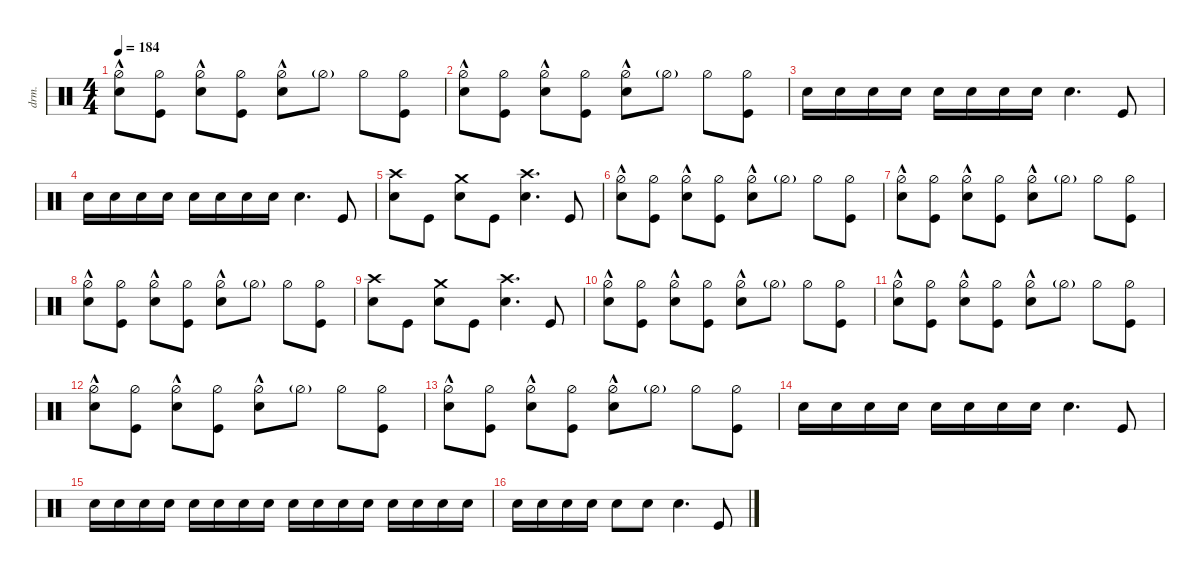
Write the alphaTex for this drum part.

\defaultSystemsLayout 4
\hideDynamics
\bracketExtendMode nobrackets
\otherSystemsTrackNameOrientation horizontal
\track ("Drums" "drm.") {defaultSystemsLayout 4 multiBarRest instrument percussion}
\staff {score}
\articulation defaults
\ts (4 4)
\tempo 184
\clef neutral
\ks c
("Snare (hit) 2" "Hi-Hat (half)"{hac}).8{dy f} ("Kick (hit)" "Hi-Hat (half)").8 ("Snare (hit) 2" "Hi-Hat (half)"{hac}).8 ("Kick (hit)" "Hi-Hat (half)").8 ("Snare (hit) 2" "Hi-Hat (half)"{hac}).8 "Hi-Hat (half)"{g}.8 "Hi-Hat (half)".8 ("Hi-Hat (half)" "Kick (hit)").8 |
("Snare (hit) 2" "Hi-Hat (half)"{hac}).8 ("Kick (hit)" "Hi-Hat (half)").8 ("Snare (hit) 2" "Hi-Hat (half)"{hac}).8 ("Kick (hit)" "Hi-Hat (half)").8 ("Snare (hit) 2" "Hi-Hat (half)"{hac}).8 "Hi-Hat (half)"{g}.8 "Hi-Hat (half)".8 ("Hi-Hat (half)" "Kick (hit)").8 |
"Snare (hit) 2".16 "Snare (hit) 2".16{dy mp} "Snare (hit) 2".16 "Snare (hit) 2".16 "Snare (hit) 2".16{dy f} "Snare (hit) 2".16{dy mp} "Snare (hit) 2".16 "Snare (hit) 2".16 "Snare (hit) 2".4{d dy f} "Kick (hit)".8 |
"Snare (hit) 2".16 "Snare (hit) 2".16{dy mp} "Snare (hit) 2".16 "Snare (hit) 2".16 "Snare (hit) 2".16{dy f} "Snare (hit) 2".16{dy mp} "Snare (hit) 2".16 "Snare (hit) 2".16 "Snare (hit) 2".4{d dy f} "Kick (hit)".8 |
("Snare (hit) 2" "Crash high (hit)").8 "Kick (hit)".8 ("Snare (hit) 2" "Crash medium (hit)").8 "Kick (hit)".8 ("Snare (hit) 2" "Crash high (hit)").4{d} "Kick (hit)".8 |
("Snare (hit) 2" "Hi-Hat (half)"{hac}).8 ("Kick (hit)" "Hi-Hat (half)").8 ("Snare (hit) 2" "Hi-Hat (half)"{hac}).8 ("Kick (hit)" "Hi-Hat (half)").8 ("Snare (hit) 2" "Hi-Hat (half)"{hac}).8 "Hi-Hat (half)"{g}.8 "Hi-Hat (half)".8 ("Hi-Hat (half)" "Kick (hit)").8 |
("Snare (hit) 2" "Hi-Hat (half)"{hac}).8 ("Kick (hit)" "Hi-Hat (half)").8 ("Snare (hit) 2" "Hi-Hat (half)"{hac}).8 ("Kick (hit)" "Hi-Hat (half)").8 ("Snare (hit) 2" "Hi-Hat (half)"{hac}).8 "Hi-Hat (half)"{g}.8 "Hi-Hat (half)".8 ("Hi-Hat (half)" "Kick (hit)").8 |
("Snare (hit) 2" "Hi-Hat (half)"{hac}).8 ("Kick (hit)" "Hi-Hat (half)").8 ("Snare (hit) 2" "Hi-Hat (half)"{hac}).8 ("Kick (hit)" "Hi-Hat (half)").8 ("Snare (hit) 2" "Hi-Hat (half)"{hac}).8 "Hi-Hat (half)"{g}.8 "Hi-Hat (half)".8 ("Hi-Hat (half)" "Kick (hit)").8 |
("Snare (hit) 2" "Crash high (hit)").8 "Kick (hit)".8 ("Snare (hit) 2" "Crash medium (hit)").8 "Kick (hit)".8 ("Snare (hit) 2" "Crash high (hit)").4{d} "Kick (hit)".8 |
("Snare (hit) 2" "Hi-Hat (half)"{hac}).8 ("Kick (hit)" "Hi-Hat (half)").8 ("Snare (hit) 2" "Hi-Hat (half)"{hac}).8 ("Kick (hit)" "Hi-Hat (half)").8 ("Snare (hit) 2" "Hi-Hat (half)"{hac}).8 "Hi-Hat (half)"{g}.8 "Hi-Hat (half)".8 ("Hi-Hat (half)" "Kick (hit)").8 |
("Snare (hit) 2" "Hi-Hat (half)"{hac}).8 ("Kick (hit)" "Hi-Hat (half)").8 ("Snare (hit) 2" "Hi-Hat (half)"{hac}).8 ("Kick (hit)" "Hi-Hat (half)").8 ("Snare (hit) 2" "Hi-Hat (half)"{hac}).8 "Hi-Hat (half)"{g}.8 "Hi-Hat (half)".8 ("Hi-Hat (half)" "Kick (hit)").8 |
("Snare (hit) 2" "Hi-Hat (half)"{hac}).8 ("Kick (hit)" "Hi-Hat (half)").8 ("Snare (hit) 2" "Hi-Hat (half)"{hac}).8 ("Kick (hit)" "Hi-Hat (half)").8 ("Snare (hit) 2" "Hi-Hat (half)"{hac}).8 "Hi-Hat (half)"{g}.8 "Hi-Hat (half)".8 ("Hi-Hat (half)" "Kick (hit)").8 |
("Snare (hit) 2" "Hi-Hat (half)"{hac}).8 ("Kick (hit)" "Hi-Hat (half)").8 ("Snare (hit) 2" "Hi-Hat (half)"{hac}).8 ("Kick (hit)" "Hi-Hat (half)").8 ("Snare (hit) 2" "Hi-Hat (half)"{hac}).8 "Hi-Hat (half)"{g}.8 "Hi-Hat (half)".8 ("Hi-Hat (half)" "Kick (hit)").8 |
"Snare (hit) 2".16 "Snare (hit) 2".16{dy mp} "Snare (hit) 2".16 "Snare (hit) 2".16 "Snare (hit) 2".16{dy f} "Snare (hit) 2".16{dy mp} "Snare (hit) 2".16 "Snare (hit) 2".16 "Snare (hit) 2".4{d dy f} "Kick (hit)".8 |
"Snare (hit) 2".16 "Snare (hit) 2".16{dy mp} "Snare (hit) 2".16 "Snare (hit) 2".16 "Snare (hit) 2".16{dy f} "Snare (hit) 2".16{dy mp} "Snare (hit) 2".16 "Snare (hit) 2".16 "Snare (hit) 2".16{dy f} "Snare (hit) 2".16{dy mp} "Snare (hit) 2".16 "Snare (hit) 2".16 "Snare (hit) 2".16{dy f} "Snare (hit) 2".16{dy mp} "Snare (hit) 2".16 "Snare (hit) 2".16 |
"Snare (hit) 2".16{dy f} "Snare (hit) 2".16{dy mp} "Snare (hit) 2".16 "Snare (hit) 2".16 "Snare (hit) 2".8 "Snare (hit) 2".8 "Snare (hit) 2".4{d dy f} "Kick (hit)".8
